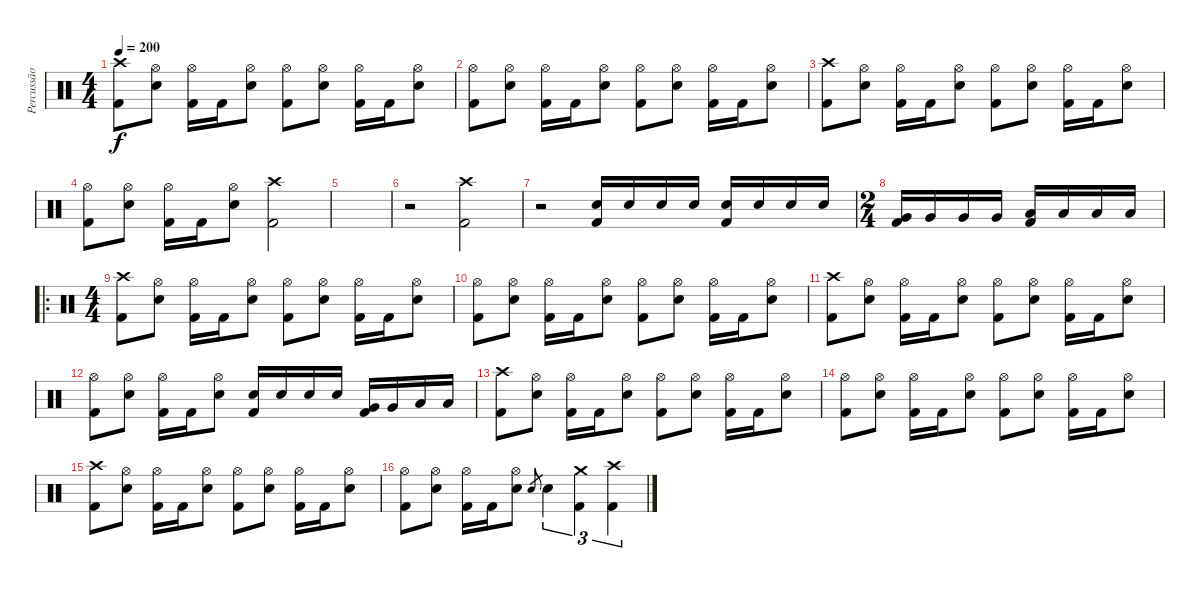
\track ("Percussão" "Percussão") {instrument percussion}
\staff {score}
\articulation defaults
\ts (4 4)
\tempo 200
\clef neutral
\ks c
("Crash high (hit)" "Kick (hit) 2").8{dy f} ("Hi-Hat (open)" "Snare (hit) 2").8 ("Hi-Hat (open)" "Kick (hit) 2").16 "Kick (hit) 2".16 ("Hi-Hat (open)" "Snare (hit) 2").8 ("Hi-Hat (open)" "Kick (hit) 2").8 ("Hi-Hat (open)" "Snare (hit) 2").8 ("Hi-Hat (open)" "Kick (hit) 2").16 "Kick (hit) 2".16 ("Hi-Hat (open)" "Snare (hit) 2").8 |
("Hi-Hat (open)" "Kick (hit) 2").8 ("Hi-Hat (open)" "Snare (hit) 2").8 ("Hi-Hat (open)" "Kick (hit) 2").16 "Kick (hit) 2".16 ("Hi-Hat (open)" "Snare (hit) 2").8 ("Hi-Hat (open)" "Kick (hit) 2").8 ("Hi-Hat (open)" "Snare (hit) 2").8 ("Hi-Hat (open)" "Kick (hit) 2").16 "Kick (hit) 2".16 ("Hi-Hat (open)" "Snare (hit) 2").8 |
("Crash high (hit)" "Kick (hit) 2").8 ("Hi-Hat (open)" "Snare (hit) 2").8 ("Hi-Hat (open)" "Kick (hit) 2").16 "Kick (hit) 2".16 ("Hi-Hat (open)" "Snare (hit) 2").8 ("Hi-Hat (open)" "Kick (hit) 2").8 ("Hi-Hat (open)" "Snare (hit) 2").8 ("Hi-Hat (open)" "Kick (hit) 2").16 "Kick (hit) 2".16 ("Hi-Hat (open)" "Snare (hit) 2").8 |
("Hi-Hat (open)" "Kick (hit) 2").8 ("Hi-Hat (open)" "Snare (hit) 2").8 ("Hi-Hat (open)" "Kick (hit) 2").16 "Kick (hit) 2".16 ("Hi-Hat (open)" "Snare (hit) 2").8 ("Crash high (hit)" "Kick (hit) 2").2 |
|
r.2 ("Crash high (hit)" "Kick (hit) 2").2 |
r.2 ("Snare (hit) 2" "Kick (hit) 2").16 "Snare (hit) 2".16 "Snare (hit) 2".16 "Snare (hit) 2".16 ("Snare (hit) 2" "Kick (hit) 2").16 "Snare (hit) 2".16 "Snare (hit) 2".16 "Snare (hit) 2".16 |
\ts (2 4)
("Very Low Tom (hit)" "Kick (hit) 2").16 "Very Low Tom (hit)".16 "Very Low Tom (hit)".16 "Very Low Tom (hit)".16 ("Low Floor Tom (hit)" "Kick (hit) 2").16 "Low Floor Tom (hit)".16 "Low Floor Tom (hit)".16 "Low Floor Tom (hit)".16 |
\ro
\ts (4 4)
("Crash high (hit)" "Kick (hit) 2").8 ("Hi-Hat (open)" "Snare (hit) 2").8 ("Hi-Hat (open)" "Kick (hit) 2").16 "Kick (hit) 2".16 ("Hi-Hat (open)" "Snare (hit) 2").8 ("Hi-Hat (open)" "Kick (hit) 2").8 ("Hi-Hat (open)" "Snare (hit) 2").8 ("Hi-Hat (open)" "Kick (hit) 2").16 "Kick (hit) 2".16 ("Hi-Hat (open)" "Snare (hit) 2").8 |
("Hi-Hat (open)" "Kick (hit) 2").8 ("Hi-Hat (open)" "Snare (hit) 2").8 ("Hi-Hat (open)" "Kick (hit) 2").16 "Kick (hit) 2".16 ("Hi-Hat (open)" "Snare (hit) 2").8 ("Hi-Hat (open)" "Kick (hit) 2").8 ("Hi-Hat (open)" "Snare (hit) 2").8 ("Hi-Hat (open)" "Kick (hit) 2").16 "Kick (hit) 2".16 ("Hi-Hat (open)" "Snare (hit) 2").8 |
("Crash high (hit)" "Kick (hit) 2").8 ("Hi-Hat (open)" "Snare (hit) 2").8 ("Hi-Hat (open)" "Kick (hit) 2").16 "Kick (hit) 2".16 ("Hi-Hat (open)" "Snare (hit) 2").8 ("Hi-Hat (open)" "Kick (hit) 2").8 ("Hi-Hat (open)" "Snare (hit) 2").8 ("Hi-Hat (open)" "Kick (hit) 2").16 "Kick (hit) 2".16 ("Hi-Hat (open)" "Snare (hit) 2").8 |
("Hi-Hat (open)" "Kick (hit) 2").8 ("Hi-Hat (open)" "Snare (hit) 2").8 ("Hi-Hat (open)" "Kick (hit) 2").16 "Kick (hit) 2".16 ("Hi-Hat (open)" "Snare (hit) 2").8 ("Snare (hit) 2" "Kick (hit) 2").16 "Snare (hit) 2".16 "Snare (hit) 2".16 "Snare (hit) 2".16 ("Very Low Tom (hit)" "Kick (hit) 2").16 "Very Low Tom (hit)".16 "Low Floor Tom (hit)".16 "Low Floor Tom (hit)".16 |
("Crash high (hit)" "Kick (hit) 2").8 ("Hi-Hat (open)" "Snare (hit) 2").8 ("Hi-Hat (open)" "Kick (hit) 2").16 "Kick (hit) 2".16 ("Hi-Hat (open)" "Snare (hit) 2").8 ("Hi-Hat (open)" "Kick (hit) 2").8 ("Hi-Hat (open)" "Snare (hit) 2").8 ("Hi-Hat (open)" "Kick (hit) 2").16 "Kick (hit) 2".16 ("Hi-Hat (open)" "Snare (hit) 2").8 |
("Hi-Hat (open)" "Kick (hit) 2").8 ("Hi-Hat (open)" "Snare (hit) 2").8 ("Hi-Hat (open)" "Kick (hit) 2").16 "Kick (hit) 2".16 ("Hi-Hat (open)" "Snare (hit) 2").8 ("Hi-Hat (open)" "Kick (hit) 2").8 ("Hi-Hat (open)" "Snare (hit) 2").8 ("Hi-Hat (open)" "Kick (hit) 2").16 "Kick (hit) 2".16 ("Hi-Hat (open)" "Snare (hit) 2").8 |
("Crash high (hit)" "Kick (hit) 2").8 ("Hi-Hat (open)" "Snare (hit) 2").8 ("Hi-Hat (open)" "Kick (hit) 2").16 "Kick (hit) 2".16 ("Hi-Hat (open)" "Snare (hit) 2").8 ("Hi-Hat (open)" "Kick (hit) 2").8 ("Hi-Hat (open)" "Snare (hit) 2").8 ("Hi-Hat (open)" "Kick (hit) 2").16 "Kick (hit) 2".16 ("Hi-Hat (open)" "Snare (hit) 2").8 |
("Hi-Hat (open)" "Kick (hit) 2").8 ("Hi-Hat (open)" "Snare (hit) 2").8 ("Hi-Hat (open)" "Kick (hit) 2").16 "Kick (hit) 2".16 ("Hi-Hat (open)" "Snare (hit) 2").8 "Snare (hit) 2".8{gr} "Snare (hit) 2".4{tu (3 2)} ("Crash medium (hit)" "Kick (hit) 2").4{tu (3 2)} ("Crash high (hit)" "Kick (hit) 2").4{tu (3 2)}
